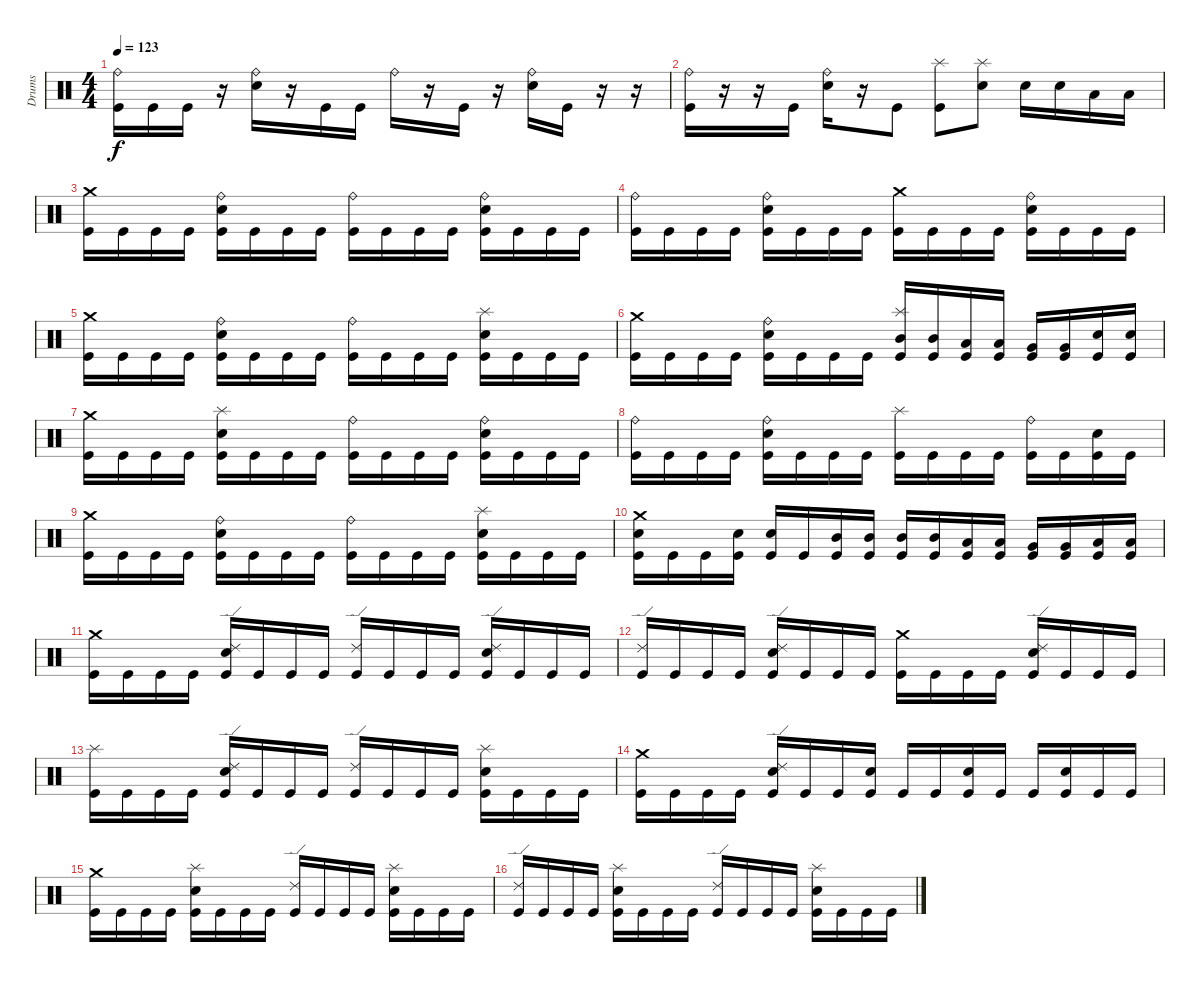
\track ("Drums" "Drums") {instrument percussion}
\staff {score}
\articulation defaults
\ts (4 4)
\tempo 123
\clef neutral
\ks c
("Ride (bell)" "Kick (hit)").16{dy f} "Kick (hit)".16 "Kick (hit)".16 r.16 ("Ride (bell)" "Electric Snare (hit)").16 r.16 "Kick (hit)".16 "Kick (hit)".16 "Ride (bell)".16 r.16 "Kick (hit)".16 r.16 ("Ride (bell)" "Electric Snare (hit)").16 "Kick (hit)".16 r.16 r.16 |
("Ride (bell)" "Kick (hit)").16 r.16 r.16 "Kick (hit)".16 ("Ride (bell)" "Electric Snare (hit)").16 r.16 "Kick (hit)".8 ("Splash (hit)" "Kick (hit)").8 ("Splash (hit)" "Electric Snare (hit)").8 "Electric Snare (hit)".16 "Electric Snare (hit)".16 "Low Tom (hit)".16 "Low Tom (hit)".16 |
("Crash medium (hit)" "Kick (hit)").16 "Kick (hit)".16 "Kick (hit)".16 "Kick (hit)".16 ("Ride (bell)" "Electric Snare (hit)" "Kick (hit)").16 "Kick (hit)".16 "Kick (hit)".16 "Kick (hit)".16 ("Ride (bell)" "Kick (hit)").16 "Kick (hit)".16 "Kick (hit)".16 "Kick (hit)".16 ("Ride (bell)" "Electric Snare (hit)" "Kick (hit)").16 "Kick (hit)".16 "Kick (hit)".16 "Kick (hit)".16 |
("Ride (bell)" "Kick (hit)").16 "Kick (hit)".16 "Kick (hit)".16 "Kick (hit)".16 ("Ride (bell)" "Electric Snare (hit)" "Kick (hit)").16 "Kick (hit)".16 "Kick (hit)".16 "Kick (hit)".16 ("Crash medium (hit)" "Kick (hit)").16 "Kick (hit)".16 "Kick (hit)".16 "Kick (hit)".16 ("Ride (bell)" "Electric Snare (hit)" "Kick (hit)").16 "Kick (hit)".16 "Kick (hit)".16 "Kick (hit)".16 |
("Crash medium (hit)" "Kick (hit)").16 "Kick (hit)".16 "Kick (hit)".16 "Kick (hit)".16 ("Ride (bell)" "Electric Snare (hit)" "Kick (hit)").16 "Kick (hit)".16 "Kick (hit)".16 "Kick (hit)".16 ("Ride (bell)" "Kick (hit)").16 "Kick (hit)".16 "Kick (hit)".16 "Kick (hit)".16 ("Splash (hit)" "Electric Snare (hit)" "Kick (hit)").16 "Kick (hit)".16 "Kick (hit)".16 "Kick (hit)".16 |
("Crash medium (hit)" "Kick (hit)").16 "Kick (hit)".16 "Kick (hit)".16 "Kick (hit)".16 ("Ride (bell)" "Electric Snare (hit)" "Kick (hit)").16 "Kick (hit)".16 "Kick (hit)".16 "Kick (hit)".16 ("Splash (hit)" "Mid Tom (hit)" "Kick (hit)").16 ("Mid Tom (hit)" "Kick (hit)").16 ("Low Tom (hit)" "Kick (hit)").16 ("Low Tom (hit)" "Kick (hit)").16 ("Very Low Tom (hit)" "Kick (hit)").16 ("Very Low Tom (hit)" "Kick (hit)").16 ("Electric Snare (hit)" "Kick (hit)").16 ("Electric Snare (hit)" "Kick (hit)").16 |
("Crash medium (hit)" "Kick (hit)").16 "Kick (hit)".16 "Kick (hit)".16 "Kick (hit)".16 ("Splash (hit)" "Electric Snare (hit)" "Kick (hit)").16 "Kick (hit)".16 "Kick (hit)".16 "Kick (hit)".16 ("Ride (bell)" "Kick (hit)").16 "Kick (hit)".16 "Kick (hit)".16 "Kick (hit)".16 ("Ride (bell)" "Electric Snare (hit)" "Kick (hit)").16 "Kick (hit)".16 "Kick (hit)".16 "Kick (hit)".16 |
("Ride (bell)" "Kick (hit)").16 "Kick (hit)".16 "Kick (hit)".16 "Kick (hit)".16 ("Ride (bell)" "Electric Snare (hit)" "Kick (hit)").16 "Kick (hit)".16 "Kick (hit)".16 "Kick (hit)".16 ("Splash (hit)" "Kick (hit)").16 "Kick (hit)".16 "Kick (hit)".16 "Kick (hit)".16 ("Ride (bell)" "Kick (hit)").16 "Kick (hit)".16 ("Electric Snare (hit)" "Kick (hit)").16 "Kick (hit)".16 |
("Crash medium (hit)" "Kick (hit)").16 "Kick (hit)".16 "Kick (hit)".16 "Kick (hit)".16 ("Ride (bell)" "Electric Snare (hit)" "Kick (hit)").16 "Kick (hit)".16 "Kick (hit)".16 "Kick (hit)".16 ("Ride (bell)" "Kick (hit)").16 "Kick (hit)".16 "Kick (hit)".16 "Kick (hit)".16 ("Splash (hit)" "Electric Snare (hit)" "Kick (hit)").16 "Kick (hit)".16 "Kick (hit)".16 "Kick (hit)".16 |
("Crash medium (hit)" "Electric Snare (hit)" "Kick (hit)").16 "Kick (hit)".16 "Kick (hit)".16 ("Electric Snare (hit)" "Kick (hit)").16 ("Electric Snare (hit)" "Kick (hit)").16 "Kick (hit)".16 ("Mid Tom (hit)" "Kick (hit)").16 ("Mid Tom (hit)" "Kick (hit)").16 ("Mid Tom (hit)" "Kick (hit)").16 ("Mid Tom (hit)" "Kick (hit)").16 ("Low Tom (hit)" "Kick (hit)").16 ("Low Tom (hit)" "Kick (hit)").16 ("Very Low Tom (hit)" "Kick (hit)").16 ("Very Low Tom (hit)" "Kick (hit)").16 ("Low Floor Tom (hit)" "Kick (hit)").16 ("Low Floor Tom (hit)" "Kick (hit)").16 |
("Crash medium (hit)" "Kick (hit)").16 "Kick (hit)".16 "Kick (hit)".16 "Kick (hit)".16 ("Ride (edge) 2" "Electric Snare (hit)" "Kick (hit)").16 "Kick (hit)".16 "Kick (hit)".16 "Kick (hit)".16 ("Ride (edge) 2" "Kick (hit)").16 "Kick (hit)".16 "Kick (hit)".16 "Kick (hit)".16 ("Ride (edge) 2" "Electric Snare (hit)" "Kick (hit)").16 "Kick (hit)".16 "Kick (hit)".16 "Kick (hit)".16 |
("Ride (edge) 2" "Kick (hit)").16 "Kick (hit)".16 "Kick (hit)".16 "Kick (hit)".16 ("Ride (edge) 2" "Electric Snare (hit)" "Kick (hit)").16 "Kick (hit)".16 "Kick (hit)".16 "Kick (hit)".16 ("Crash medium (hit)" "Kick (hit)").16 "Kick (hit)".16 "Kick (hit)".16 "Kick (hit)".16 ("Ride (edge) 2" "Electric Snare (hit)" "Kick (hit)").16 "Kick (hit)".16 "Kick (hit)".16 "Kick (hit)".16 |
("Splash (hit)" "Kick (hit)").16 "Kick (hit)".16 "Kick (hit)".16 "Kick (hit)".16 ("Ride (edge) 2" "Electric Snare (hit)" "Kick (hit)").16 "Kick (hit)".16 "Kick (hit)".16 "Kick (hit)".16 ("Ride (edge) 2" "Kick (hit)").16 "Kick (hit)".16 "Kick (hit)".16 "Kick (hit)".16 ("Splash (hit)" "Electric Snare (hit)" "Kick (hit)").16 "Kick (hit)".16 "Kick (hit)".16 "Kick (hit)".16 |
("Crash medium (hit)" "Kick (hit)").16 "Kick (hit)".16 "Kick (hit)".16 "Kick (hit)".16 ("Ride (edge) 2" "Electric Snare (hit)" "Kick (hit)").16 "Kick (hit)".16 "Kick (hit)".16 ("Electric Snare (hit)" "Kick (hit)").16 "Kick (hit)".16 "Kick (hit)".16 ("Electric Snare (hit)" "Kick (hit)").16 "Kick (hit)".16 "Kick (hit)".16 ("Electric Snare (hit)" "Kick (hit)").16 "Kick (hit)".16 "Kick (hit)".16 |
("Crash medium (hit)" "Kick (hit)").16 "Kick (hit)".16 "Kick (hit)".16 "Kick (hit)".16 ("Splash (hit)" "Electric Snare (hit)" "Kick (hit)").16 "Kick (hit)".16 "Kick (hit)".16 "Kick (hit)".16 ("Ride (edge) 2" "Kick (hit)").16 "Kick (hit)".16 "Kick (hit)".16 "Kick (hit)".16 ("Splash (hit)" "Electric Snare (hit)" "Kick (hit)").16 "Kick (hit)".16 "Kick (hit)".16 "Kick (hit)".16 |
("Ride (edge) 2" "Kick (hit)").16 "Kick (hit)".16 "Kick (hit)".16 "Kick (hit)".16 ("Splash (hit)" "Electric Snare (hit)" "Kick (hit)").16 "Kick (hit)".16 "Kick (hit)".16 "Kick (hit)".16 ("Ride (edge) 2" "Kick (hit)").16 "Kick (hit)".16 "Kick (hit)".16 "Kick (hit)".16 ("Splash (hit)" "Electric Snare (hit)" "Kick (hit)").16 "Kick (hit)".16 "Kick (hit)".16 "Kick (hit)".16
